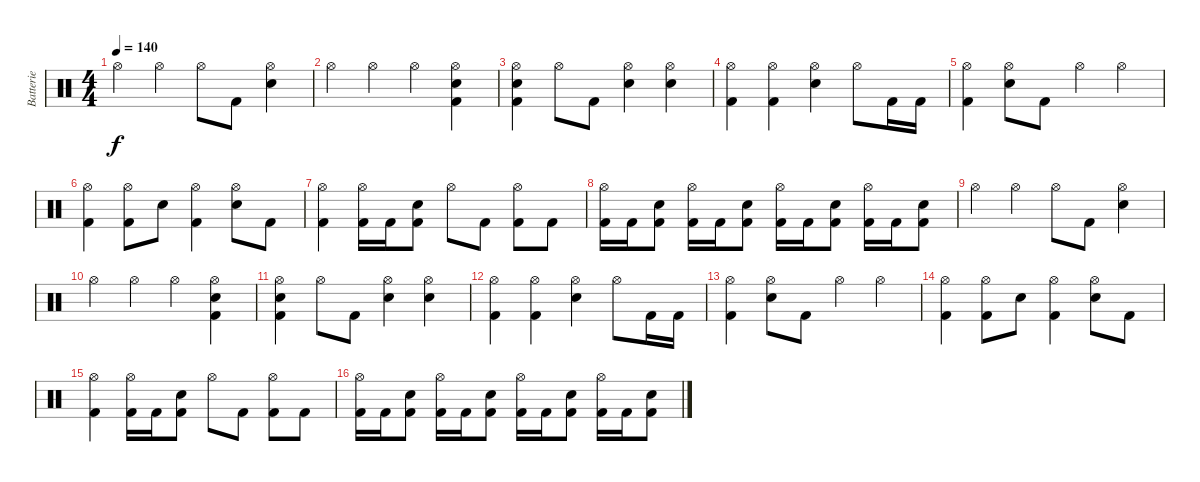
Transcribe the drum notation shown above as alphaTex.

\track ("Batterie" "Batterie") {instrument percussion}
\staff {score}
\articulation defaults
\ts (4 4)
\tempo 140
\clef neutral
\ks c "Hi-Hat (open)".4{dy f} "Hi-Hat (open)".4 "Hi-Hat (open)".8 "Kick (hit) 2".8
("Hi-Hat (open)" "Electric Snare (hit)").4 |
"Hi-Hat (open)".4 "Hi-Hat (open)".4 "Hi-Hat (open)".4 ("Hi-Hat (open)" "Electric Snare (hit)" "Kick (hit) 2").4 |
("Hi-Hat (open)" "Electric Snare (hit)" "Kick (hit) 2").4 "Hi-Hat (open)".8 "Kick (hit) 2".8 ("Hi-Hat (open)" "Electric Snare (hit)").4 ("Hi-Hat (open)" "Electric Snare (hit)").4 |
("Hi-Hat (open)" "Kick (hit) 2").4 ("Hi-Hat (open)" "Kick (hit) 2").4 ("Hi-Hat (open)" "Electric Snare (hit)").4 "Hi-Hat (open)".8 "Kick (hit) 2".16 "Kick (hit) 2".16 |
("Hi-Hat (open)" "Kick (hit) 2").4 ("Hi-Hat (open)" "Electric Snare (hit)").8 "Kick (hit) 2".8 "Hi-Hat (open)".4 "Hi-Hat (open)".4 |
("Hi-Hat (open)" "Kick (hit) 2").4 ("Hi-Hat (open)" "Kick (hit) 2").8 "Electric Snare (hit)".8 ("Hi-Hat (open)" "Kick (hit) 2").4 ("Hi-Hat (open)" "Electric Snare (hit)").8 "Kick (hit) 2".8 |
("Hi-Hat (open)" "Kick (hit) 2").4 ("Hi-Hat (open)" "Kick (hit) 2").16 "Kick (hit) 2".16 ("Electric Snare (hit)" "Kick (hit) 2").8 "Hi-Hat (open)".8 "Kick (hit) 2".8 ("Hi-Hat (open)" "Kick (hit) 2").8 "Kick (hit) 2".8 |
("Hi-Hat (open)" "Kick (hit) 2").16 "Kick (hit) 2".16 ("Electric Snare (hit)" "Kick (hit) 2").8 ("Hi-Hat (open)" "Kick (hit) 2").16 "Kick (hit) 2".16 ("Electric Snare (hit)" "Kick (hit) 2").8 ("Hi-Hat (open)" "Kick (hit) 2").16 "Kick (hit) 2".16 ("Electric Snare (hit)" "Kick (hit) 2").8 ("Hi-Hat (open)" "Kick (hit) 2").16 "Kick (hit) 2".16 ("Electric Snare (hit)" "Kick (hit) 2").8 |
"Hi-Hat (open)".4 "Hi-Hat (open)".4 "Hi-Hat (open)".8 "Kick (hit) 2".8 ("Hi-Hat (open)" "Electric Snare (hit)").4 |
"Hi-Hat (open)".4 "Hi-Hat (open)".4 "Hi-Hat (open)".4 ("Hi-Hat (open)" "Electric Snare (hit)" "Kick (hit) 2").4 |
("Hi-Hat (open)" "Electric Snare (hit)" "Kick (hit) 2").4 "Hi-Hat (open)".8 "Kick (hit) 2".8 ("Hi-Hat (open)" "Electric Snare (hit)").4 ("Hi-Hat (open)" "Electric Snare (hit)").4 |
("Hi-Hat (open)" "Kick (hit) 2").4 ("Hi-Hat (open)" "Kick (hit) 2").4 ("Hi-Hat (open)" "Electric Snare (hit)").4 "Hi-Hat (open)".8 "Kick (hit) 2".16 "Kick (hit) 2".16 |
("Hi-Hat (open)" "Kick (hit) 2").4 ("Hi-Hat (open)" "Electric Snare (hit)").8 "Kick (hit) 2".8 "Hi-Hat (open)".4 "Hi-Hat (open)".4 |
("Hi-Hat (open)" "Kick (hit) 2").4 ("Hi-Hat (open)" "Kick (hit) 2").8 "Electric Snare (hit)".8 ("Hi-Hat (open)" "Kick (hit) 2").4 ("Hi-Hat (open)" "Electric Snare (hit)").8 "Kick (hit) 2".8 |
("Hi-Hat (open)" "Kick (hit) 2").4 ("Hi-Hat (open)" "Kick (hit) 2").16 "Kick (hit) 2".16 ("Electric Snare (hit)" "Kick (hit) 2").8 "Hi-Hat (open)".8 "Kick (hit) 2".8 ("Hi-Hat (open)" "Kick (hit) 2").8 "Kick (hit) 2".8 |
("Hi-Hat (open)" "Kick (hit) 2").16 "Kick (hit) 2".16 ("Electric Snare (hit)" "Kick (hit) 2").8 ("Hi-Hat (open)" "Kick (hit) 2").16 "Kick (hit) 2".16 ("Electric Snare (hit)" "Kick (hit) 2").8 ("Hi-Hat (open)" "Kick (hit) 2").16 "Kick (hit) 2".16 ("Electric Snare (hit)" "Kick (hit) 2").8 ("Hi-Hat (open)" "Kick (hit) 2").16 "Kick (hit) 2".16 ("Electric Snare (hit)" "Kick (hit) 2").8
